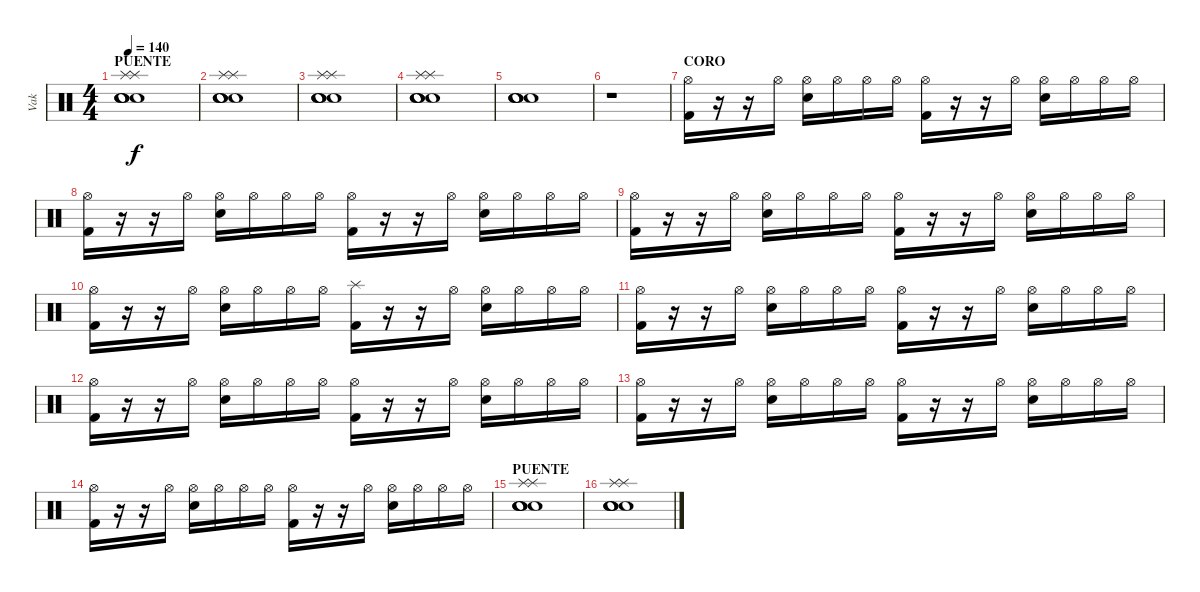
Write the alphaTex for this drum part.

\track ("Vak" "Vak") {instrument percussion}
\staff {score}
\articulation defaults
\ts (4 4)
\section ("" "PUENTE ")
\tempo 140
\clef neutral
\ks c
("Snare (hit) 2" "Splash (hit)" "Snare (hit) 2" "Splash (hit)" "Snare (hit) 2" "Snare (hit) 2").1{dy f} |
("Snare (hit) 2" "Splash (hit)" "Snare (hit) 2" "Splash (hit)" "Snare (hit) 2" "Snare (hit) 2").1 |
("Snare (hit) 2" "Splash (hit)" "Snare (hit) 2" "Splash (hit)" "Snare (hit) 2" "Snare (hit) 2").1 |
("Snare (hit) 2" "Splash (hit)" "Snare (hit) 2" "Splash (hit)" "Snare (hit) 2" "Snare (hit) 2").1 |
("Snare (hit) 2" "Snare (hit) 2" "Snare (hit) 2" "Snare (hit) 2").1 |
r.1 |
\section ("" "CORO")
("Hi-Hat (open)" "Kick (hit) 2").16 r.16 r.16 "Hi-Hat (open)".16 ("Hi-Hat (open)" "Snare (hit) 2").16 "Hi-Hat (open)".16 "Hi-Hat (open)".16 "Hi-Hat (open)".16 ("Hi-Hat (open)" "Kick (hit) 2").16 r.16 r.16 "Hi-Hat (open)".16 ("Hi-Hat (open)" "Snare (hit) 2").16 "Hi-Hat (open)".16 "Hi-Hat (open)".16 "Hi-Hat (open)".16 |
("Hi-Hat (open)" "Kick (hit) 2").16 r.16 r.16 "Hi-Hat (open)".16 ("Hi-Hat (open)" "Snare (hit) 2").16 "Hi-Hat (open)".16 "Hi-Hat (open)".16 "Hi-Hat (open)".16 ("Hi-Hat (open)" "Kick (hit) 2").16 r.16 r.16 "Hi-Hat (open)".16 ("Hi-Hat (open)" "Snare (hit) 2").16 "Hi-Hat (open)".16 "Hi-Hat (open)".16 "Hi-Hat (open)".16 |
("Hi-Hat (open)" "Kick (hit) 2").16 r.16 r.16 "Hi-Hat (open)".16 ("Hi-Hat (open)" "Snare (hit) 2").16 "Hi-Hat (open)".16 "Hi-Hat (open)".16 "Hi-Hat (open)".16 ("Hi-Hat (open)" "Kick (hit) 2").16 r.16 r.16 "Hi-Hat (open)".16 ("Hi-Hat (open)" "Snare (hit) 2").16 "Hi-Hat (open)".16 "Hi-Hat (open)".16 "Hi-Hat (open)".16 |
("Hi-Hat (open)" "Kick (hit) 2").16 r.16 r.16 "Hi-Hat (open)".16 ("Hi-Hat (open)" "Snare (hit) 2").16 "Hi-Hat (open)".16 "Hi-Hat (open)".16 "Hi-Hat (open)".16 ("Splash (hit)" "Kick (hit) 2").16 r.16 r.16 "Hi-Hat (open)".16 ("Hi-Hat (open)" "Snare (hit) 2").16 "Hi-Hat (open)".16 "Hi-Hat (open)".16 "Hi-Hat (open)".16 |
("Hi-Hat (open)" "Kick (hit) 2").16 r.16 r.16 "Hi-Hat (open)".16 ("Hi-Hat (open)" "Snare (hit) 2").16 "Hi-Hat (open)".16 "Hi-Hat (open)".16 "Hi-Hat (open)".16 ("Hi-Hat (open)" "Kick (hit) 2").16 r.16 r.16 "Hi-Hat (open)".16 ("Hi-Hat (open)" "Snare (hit) 2").16 "Hi-Hat (open)".16 "Hi-Hat (open)".16 "Hi-Hat (open)".16 |
("Hi-Hat (open)" "Kick (hit) 2").16 r.16 r.16 "Hi-Hat (open)".16 ("Hi-Hat (open)" "Snare (hit) 2").16 "Hi-Hat (open)".16 "Hi-Hat (open)".16 "Hi-Hat (open)".16 ("Hi-Hat (open)" "Kick (hit) 2").16 r.16 r.16 "Hi-Hat (open)".16 ("Hi-Hat (open)" "Snare (hit) 2").16 "Hi-Hat (open)".16 "Hi-Hat (open)".16 "Hi-Hat (open)".16 |
("Hi-Hat (open)" "Kick (hit) 2").16 r.16 r.16 "Hi-Hat (open)".16 ("Hi-Hat (open)" "Snare (hit) 2").16 "Hi-Hat (open)".16 "Hi-Hat (open)".16 "Hi-Hat (open)".16 ("Hi-Hat (open)" "Kick (hit) 2").16 r.16 r.16 "Hi-Hat (open)".16 ("Hi-Hat (open)" "Snare (hit) 2").16 "Hi-Hat (open)".16 "Hi-Hat (open)".16 "Hi-Hat (open)".16 |
("Hi-Hat (open)" "Kick (hit) 2").16 r.16 r.16 "Hi-Hat (open)".16 ("Hi-Hat (open)" "Snare (hit) 2").16 "Hi-Hat (open)".16 "Hi-Hat (open)".16 "Hi-Hat (open)".16 ("Hi-Hat (open)" "Kick (hit) 2").16 r.16 r.16 "Hi-Hat (open)".16 ("Hi-Hat (open)" "Snare (hit) 2").16 "Hi-Hat (open)".16 "Hi-Hat (open)".16 "Hi-Hat (open)".16 |
\section ("" "PUENTE")
("Snare (hit) 2" "Splash (hit)" "Snare (hit) 2" "Splash (hit)" "Snare (hit) 2" "Snare (hit) 2").1 |
("Snare (hit) 2" "Splash (hit)" "Snare (hit) 2" "Splash (hit)" "Snare (hit) 2" "Snare (hit) 2").1
